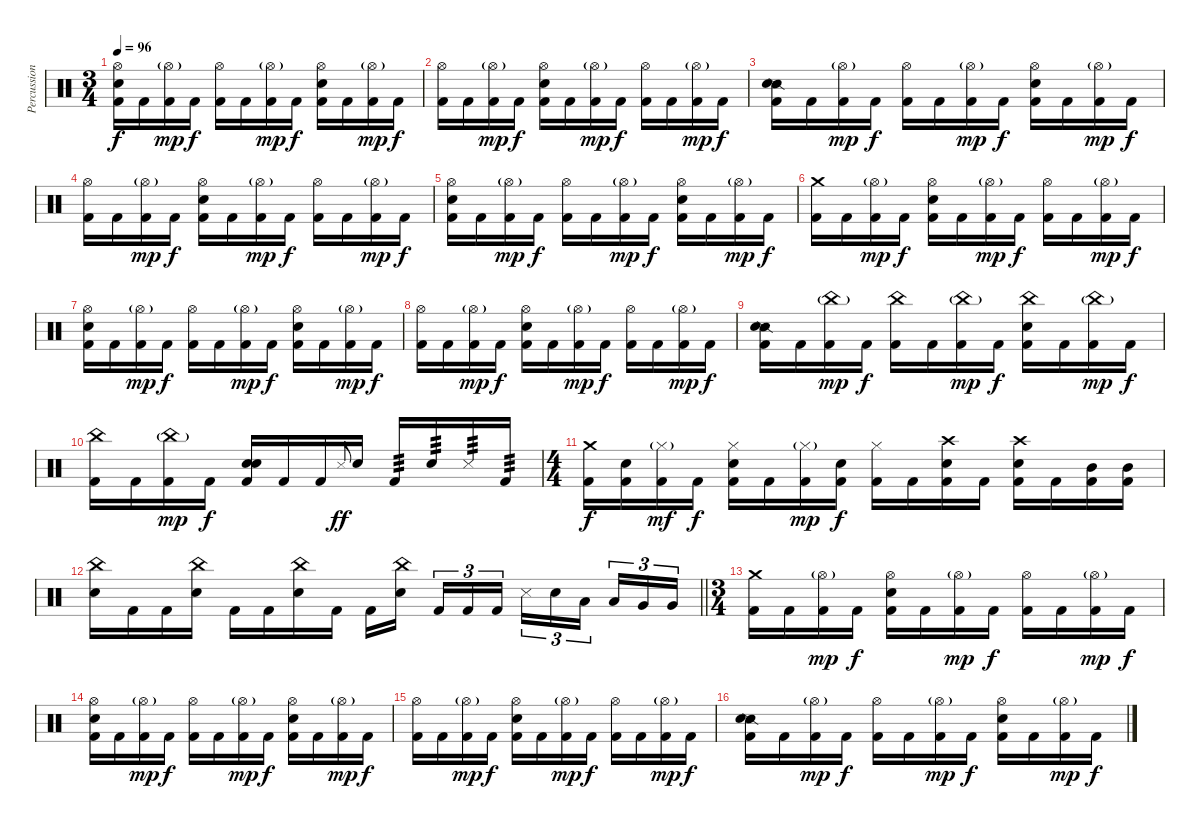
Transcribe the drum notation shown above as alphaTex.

\track ("Percussion" "Percussion") {instrument percussion}
\staff {score}
\articulation defaults
\ts (3 4)
\tempo 96
\clef neutral
\ks c
("Hi-Hat (open)" "Snare (hit) 2" "Kick (hit) 2").16{dy f} "Kick (hit) 2".16 ("Hi-Hat (open)"{g} "Kick (hit) 2").16{dy mp} "Kick (hit) 2".16{dy f} ("Hi-Hat (open)" "Kick (hit) 2").16 "Kick (hit) 2".16 ("Hi-Hat (open)"{g} "Kick (hit) 2").16{dy mp} "Kick (hit) 2".16{dy f} ("Hi-Hat (open)" "Snare (hit) 2" "Kick (hit) 2").16 "Kick (hit) 2".16 ("Hi-Hat (open)"{g} "Kick (hit) 2").16{dy mp} "Kick (hit) 2".16{dy f} |
("Hi-Hat (open)" "Kick (hit) 2").16 "Kick (hit) 2".16 ("Hi-Hat (open)"{g} "Kick (hit) 2").16{dy mp} "Kick (hit) 2".16{dy f} ("Hi-Hat (open)" "Snare (hit) 2" "Kick (hit) 2").16 "Kick (hit) 2".16 ("Hi-Hat (open)"{g} "Kick (hit) 2").16{dy mp} "Kick (hit) 2".16{dy f} ("Hi-Hat (open)" "Kick (hit) 2").16 "Kick (hit) 2".16 ("Hi-Hat (open)"{g} "Kick (hit) 2").16{dy mp} "Kick (hit) 2".16{dy f} |
("Snare (side stick) 2" "Snare (hit) 2" "Kick (hit) 2").16 "Kick (hit) 2".16 ("Hi-Hat (open)"{g} "Kick (hit) 2").16{dy mp} "Kick (hit) 2".16{dy f} ("Hi-Hat (open)" "Kick (hit) 2").16 "Kick (hit) 2".16 ("Hi-Hat (open)"{g} "Kick (hit) 2").16{dy mp} "Kick (hit) 2".16{dy f} ("Hi-Hat (open)" "Snare (hit) 2" "Kick (hit) 2").16 "Kick (hit) 2".16 ("Hi-Hat (open)"{g} "Kick (hit) 2").16{dy mp} "Kick (hit) 2".16{dy f} |
("Hi-Hat (open)" "Kick (hit) 2").16 "Kick (hit) 2".16 ("Hi-Hat (open)"{g} "Kick (hit) 2").16{dy mp} "Kick (hit) 2".16{dy f} ("Hi-Hat (open)" "Snare (hit) 2" "Kick (hit) 2").16 "Kick (hit) 2".16 ("Hi-Hat (open)"{g} "Kick (hit) 2").16{dy mp} "Kick (hit) 2".16{dy f} ("Hi-Hat (open)" "Kick (hit) 2").16 "Kick (hit) 2".16 ("Hi-Hat (open)"{g} "Kick (hit) 2").16{dy mp} "Kick (hit) 2".16{dy f} |
("Hi-Hat (open)" "Snare (hit) 2" "Kick (hit) 2").16 "Kick (hit) 2".16 ("Hi-Hat (open)"{g} "Kick (hit) 2").16{dy mp} "Kick (hit) 2".16{dy f} ("Hi-Hat (open)" "Kick (hit) 2").16 "Kick (hit) 2".16 ("Hi-Hat (open)"{g} "Kick (hit) 2").16{dy mp} "Kick (hit) 2".16{dy f} ("Hi-Hat (open)" "Snare (hit) 2" "Kick (hit) 2").16 "Kick (hit) 2".16 ("Hi-Hat (open)"{g} "Kick (hit) 2").16{dy mp} "Kick (hit) 2".16{dy f} |
("Crash medium (hit)" "Kick (hit) 2").16 "Kick (hit) 2".16 ("Hi-Hat (open)"{g} "Kick (hit) 2").16{dy mp} "Kick (hit) 2".16{dy f} ("Hi-Hat (open)" "Snare (hit) 2" "Kick (hit) 2").16 "Kick (hit) 2".16 ("Hi-Hat (open)"{g} "Kick (hit) 2").16{dy mp} "Kick (hit) 2".16{dy f} ("Hi-Hat (open)" "Kick (hit) 2").16 "Kick (hit) 2".16 ("Hi-Hat (open)"{g} "Kick (hit) 2").16{dy mp} "Kick (hit) 2".16{dy f} |
("Hi-Hat (open)" "Snare (hit) 2" "Kick (hit) 2").16 "Kick (hit) 2".16 ("Hi-Hat (open)"{g} "Kick (hit) 2").16{dy mp} "Kick (hit) 2".16{dy f} ("Hi-Hat (open)" "Kick (hit) 2").16 "Kick (hit) 2".16 ("Hi-Hat (open)"{g} "Kick (hit) 2").16{dy mp} "Kick (hit) 2".16{dy f} ("Hi-Hat (open)" "Snare (hit) 2" "Kick (hit) 2").16 "Kick (hit) 2".16 ("Hi-Hat (open)"{g} "Kick (hit) 2").16{dy mp} "Kick (hit) 2".16{dy f} |
("Hi-Hat (open)" "Kick (hit) 2").16 "Kick (hit) 2".16 ("Hi-Hat (open)"{g} "Kick (hit) 2").16{dy mp} "Kick (hit) 2".16{dy f} ("Hi-Hat (open)" "Snare (hit) 2" "Kick (hit) 2").16 "Kick (hit) 2".16 ("Hi-Hat (open)"{g} "Kick (hit) 2").16{dy mp} "Kick (hit) 2".16{dy f} ("Hi-Hat (open)" "Kick (hit) 2").16 "Kick (hit) 2".16 ("Hi-Hat (open)"{g} "Kick (hit) 2").16{dy mp} "Kick (hit) 2".16{dy f} |
("Snare (side stick) 2" "Snare (hit) 2" "Kick (hit) 2").16 "Kick (hit) 2".16 ("China (hit)"{g} "Kick (hit) 2").16{dy mp} "Kick (hit) 2".16{dy f} ("China (hit)" "Kick (hit) 2").16 "Kick (hit) 2".16 ("China (hit)"{g} "Kick (hit) 2").16{dy mp} "Kick (hit) 2".16{dy f} ("China (hit)" "Snare (hit) 2" "Kick (hit) 2").16 "Kick (hit) 2".16 ("China (hit)"{g} "Kick (hit) 2").16{dy mp} "Kick (hit) 2".16{dy f} |
("China (hit)" "Kick (hit) 2").16 "Kick (hit) 2".16 ("China (hit)"{g} "Kick (hit) 2").16{dy mp} "Kick (hit) 2".16{dy f} ("Snare (hit)" "Snare (hit) 2" "Kick (hit) 2").16 "Kick (hit) 2".16 "Kick (hit) 2".16 "Metronome (hit)".8{gr onbeat dy ff} "Snare (hit) 2".16 "Kick (hit) 2".16{tp 3} "Snare (hit) 2".16{tp 3} "Metronome (hit)".16{tp 3} "Kick (hit) 2".16{tp 3} |
\ts (4 4)
("Crash medium (hit)" "Kick (hit) 2").16{dy f} ("Snare (hit) 2" "Kick (hit) 2").16 ("Hi-Hat (closed)"{g} "Kick (hit) 2").16{dy mf} "Kick (hit) 2".16{dy f} ("Hi-Hat (closed)" "Snare (hit) 2" "Kick (hit) 2").16 "Kick (hit) 2".16 ("Hi-Hat (closed)"{g} "Kick (hit) 2").16{dy mp} ("Snare (hit) 2" "Kick (hit) 2").16{dy f} ("Hi-Hat (closed)" "Kick (hit) 2").16 "Kick (hit) 2".16 ("Crash high (hit)" "Snare (hit) 2" "Kick (hit) 2").16 "Kick (hit) 2".16 ("Crash high (hit)" "Snare (hit) 2" "Kick (hit) 2").16 "Kick (hit) 2".16 ("Mid Tom (hit)" "Kick (hit) 2").16 ("Mid Tom (hit)" "Kick (hit) 2").16 |
\barLineRight lightlight
("China (hit)" "Snare (hit) 2").16 "Kick (hit) 2".16 "Kick (hit) 2".16 ("China (hit)" "Snare (hit) 2").16 "Kick (hit) 2".16 "Kick (hit) 2".16 ("China (hit)" "Snare (hit) 2").16 "Kick (hit) 2".16 "Kick (hit) 2".16 ("China (hit)" "Snare (hit) 2").16{beam splitsecondary} "Kick (hit) 2".16{tu (3 2)} "Kick (hit) 2".16{tu (3 2)} "Kick (hit) 2".16{tu (3 2)} "Metronome (hit)".16{tu (3 2)} "Snare (hit) 2".16{tu (3 2)} "Low Tom (hit)".16{tu (3 2) beam splitsecondary} "Low Tom (hit)".16{tu (3 2)} "Very Low Tom (hit)".16{tu (3 2)} "Very Low Tom (hit)".16{tu (3 2)} |
\ts (3 4)
("Crash medium (hit)" "Kick (hit) 2").16 "Kick (hit) 2".16 ("Hi-Hat (open)"{g} "Kick (hit) 2").16{dy mp} "Kick (hit) 2".16{dy f} ("Hi-Hat (open)" "Snare (hit) 2" "Kick (hit) 2").16 "Kick (hit) 2".16 ("Hi-Hat (open)"{g} "Kick (hit) 2").16{dy mp} "Kick (hit) 2".16{dy f} ("Hi-Hat (open)" "Kick (hit) 2").16 "Kick (hit) 2".16 ("Hi-Hat (open)"{g} "Kick (hit) 2").16{dy mp} "Kick (hit) 2".16{dy f} |
("Hi-Hat (open)" "Snare (hit) 2" "Kick (hit) 2").16 "Kick (hit) 2".16 ("Hi-Hat (open)"{g} "Kick (hit) 2").16{dy mp} "Kick (hit) 2".16{dy f} ("Hi-Hat (open)" "Kick (hit) 2").16 "Kick (hit) 2".16 ("Hi-Hat (open)"{g} "Kick (hit) 2").16{dy mp} "Kick (hit) 2".16{dy f} ("Hi-Hat (open)" "Snare (hit) 2" "Kick (hit) 2").16 "Kick (hit) 2".16 ("Hi-Hat (open)"{g} "Kick (hit) 2").16{dy mp} "Kick (hit) 2".16{dy f} |
("Hi-Hat (open)" "Kick (hit) 2").16 "Kick (hit) 2".16 ("Hi-Hat (open)"{g} "Kick (hit) 2").16{dy mp} "Kick (hit) 2".16{dy f} ("Hi-Hat (open)" "Snare (hit) 2" "Kick (hit) 2").16 "Kick (hit) 2".16 ("Hi-Hat (open)"{g} "Kick (hit) 2").16{dy mp} "Kick (hit) 2".16{dy f} ("Hi-Hat (open)" "Kick (hit) 2").16 "Kick (hit) 2".16 ("Hi-Hat (open)"{g} "Kick (hit) 2").16{dy mp} "Kick (hit) 2".16{dy f} |
("Snare (side stick) 2" "Snare (hit) 2" "Kick (hit) 2").16 "Kick (hit) 2".16 ("Hi-Hat (open)"{g} "Kick (hit) 2").16{dy mp} "Kick (hit) 2".16{dy f} ("Hi-Hat (open)" "Kick (hit) 2").16 "Kick (hit) 2".16 ("Hi-Hat (open)"{g} "Kick (hit) 2").16{dy mp} "Kick (hit) 2".16{dy f} ("Hi-Hat (open)" "Snare (hit) 2" "Kick (hit) 2").16 "Kick (hit) 2".16 ("Hi-Hat (open)"{g} "Kick (hit) 2").16{dy mp} "Kick (hit) 2".16{dy f}
